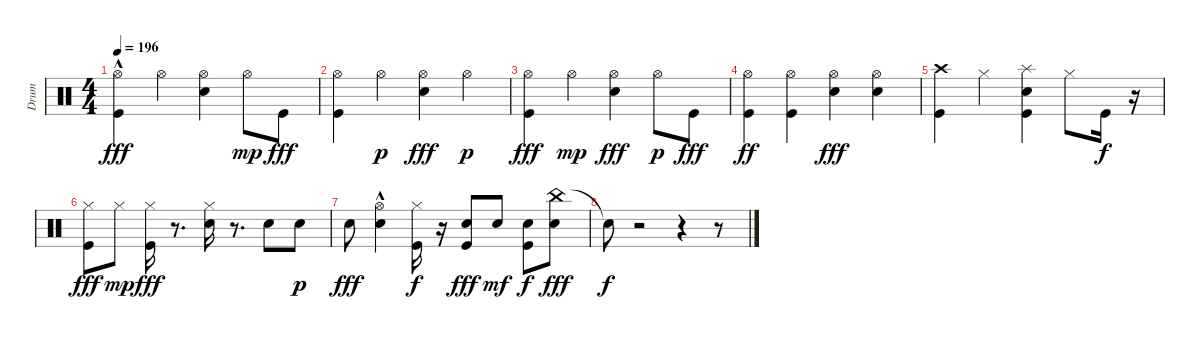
\track ("Drum" "Drum") {instrument percussion}
\staff {score}
\articulation defaults
\ts (4 4)
\tempo 196
\clef neutral
\ks c
("Kick (hit)"{hac} "Hi-Hat (open)").4{dy fff} "Hi-Hat (open)".4 ("Hi-Hat (open)" "Snare (hit) 2").4 "Hi-Hat (open)".8{dy mp} "Kick (hit)".8{dy fff} |
("Kick (hit)" "Hi-Hat (open)").4 "Hi-Hat (open)".4{dy p} ("Snare (hit) 2" "Hi-Hat (open)").4{dy fff} "Hi-Hat (open)".4{dy p} |
("Kick (hit)" "Hi-Hat (open)").4{dy fff} "Hi-Hat (open)".4{dy mp} ("Hi-Hat (open)" "Snare (hit) 2").4{dy fff} "Hi-Hat (open)".8{dy p} "Kick (hit)".8{dy fff} |
("Kick (hit)" "Hi-Hat (open)").4{dy ff} ("Kick (hit)" "Hi-Hat (open)").4 ("Hi-Hat (open)" "Snare (hit) 2").4{dy fff} ("Metronome (bell)" "Hi-Hat (open)").4 |
("Crash high (hit)" "Kick (hit)").4 "Hi-Hat (closed)".4 ("Splash (hit)" "Kick (hit)" "Snare (hit) 2").4 "Hi-Hat (closed)".8 "Kick (hit)".16{dy f} r.16 |
("Kick (hit)" "Hi-Hat (closed)").8{dy fff} "Hi-Hat (closed)".8{dy mp} ("Kick (hit)" "Hi-Hat (closed)").16{dy fff} r.8{d} ("Snare (hit) 2" "Hi-Hat (closed)").16 r.8{d} "Snare (hit) 2".8 "Snare (hit) 2".8{dy p} |
"Snare (hit) 2".8{dy fff} ("Hi-Hat (open)" "Snare (hit) 2"{hac}).4 ("Hi-Hat (closed)" "Kick (hit)").16{dy f} r.16 ("Kick (hit)" "Snare (hit) 2").8{dy fff} "Snare (hit) 2".8{dy mf} ("Kick (hit)" "Snare (hit) 2").8{dy f} ("China (hit)" "Snare (hit) 2").8{dy fff} |
"Snare (hit)"{t}.8{dy f} r.2 r.4 r.8
